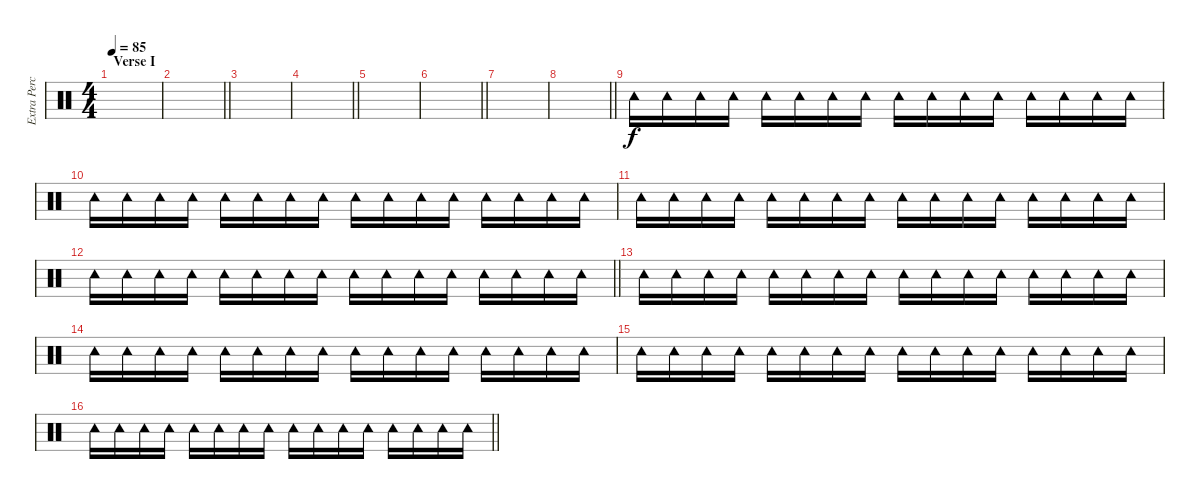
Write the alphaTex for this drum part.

\track ("Extra Percussion" "Extra Perc") {instrument percussion}
\staff {score}
\articulation defaults
\ts (4 4)
\section ("" "Verse I")
\tempo 85
\clef neutral
\ks c
|
\barLineRight lightlight
|
|
\barLineRight lightlight
|
|
\barLineRight lightlight
|
|
\barLineRight lightlight
|
"Tambourine (hit)".16 "Tambourine (hit)".16 "Tambourine (hit)".16 "Tambourine (hit)".16 "Tambourine (hit)".16 "Tambourine (hit)".16 "Tambourine (hit)".16 "Tambourine (hit)".16 "Tambourine (hit)".16 "Tambourine (hit)".16 "Tambourine (hit)".16 "Tambourine (hit)".16 "Tambourine (hit)".16 "Tambourine (hit)".16 "Tambourine (hit)".16 "Tambourine (hit)".16 |
"Tambourine (hit)".16 "Tambourine (hit)".16 "Tambourine (hit)".16 "Tambourine (hit)".16 "Tambourine (hit)".16 "Tambourine (hit)".16 "Tambourine (hit)".16 "Tambourine (hit)".16 "Tambourine (hit)".16 "Tambourine (hit)".16 "Tambourine (hit)".16 "Tambourine (hit)".16 "Tambourine (hit)".16 "Tambourine (hit)".16 "Tambourine (hit)".16 "Tambourine (hit)".16 |
"Tambourine (hit)".16 "Tambourine (hit)".16 "Tambourine (hit)".16 "Tambourine (hit)".16 "Tambourine (hit)".16 "Tambourine (hit)".16 "Tambourine (hit)".16 "Tambourine (hit)".16 "Tambourine (hit)".16 "Tambourine (hit)".16 "Tambourine (hit)".16 "Tambourine (hit)".16 "Tambourine (hit)".16 "Tambourine (hit)".16 "Tambourine (hit)".16 "Tambourine (hit)".16 |
\barLineRight lightlight "Tambourine (hit)".16 "Tambourine (hit)".16 "Tambourine (hit)".16 "Tambourine (hit)".16 "Tambourine (hit)".16 "Tambourine (hit)".16 "Tambourine (hit)".16 "Tambourine (hit)".16 "Tambourine (hit)".16 "Tambourine (hit)".16 "Tambourine (hit)".16 "Tambourine (hit)".16 "Tambourine (hit)".16 "Tambourine (hit)".16 "Tambourine (hit)".16 "Tambourine (hit)".16
|
"Tambourine (hit)".16 "Tambourine (hit)".16 "Tambourine (hit)".16 "Tambourine (hit)".16 "Tambourine (hit)".16 "Tambourine (hit)".16 "Tambourine (hit)".16 "Tambourine (hit)".16 "Tambourine (hit)".16 "Tambourine (hit)".16 "Tambourine (hit)".16 "Tambourine (hit)".16 "Tambourine (hit)".16 "Tambourine (hit)".16 "Tambourine (hit)".16 "Tambourine (hit)".16 |
"Tambourine (hit)".16 "Tambourine (hit)".16 "Tambourine (hit)".16 "Tambourine (hit)".16 "Tambourine (hit)".16 "Tambourine (hit)".16 "Tambourine (hit)".16 "Tambourine (hit)".16 "Tambourine (hit)".16 "Tambourine (hit)".16 "Tambourine (hit)".16 "Tambourine (hit)".16 "Tambourine (hit)".16 "Tambourine (hit)".16 "Tambourine (hit)".16 "Tambourine (hit)".16 |
"Tambourine (hit)".16 "Tambourine (hit)".16 "Tambourine (hit)".16 "Tambourine (hit)".16 "Tambourine (hit)".16 "Tambourine (hit)".16 "Tambourine (hit)".16 "Tambourine (hit)".16 "Tambourine (hit)".16 "Tambourine (hit)".16 "Tambourine (hit)".16 "Tambourine (hit)".16 "Tambourine (hit)".16 "Tambourine (hit)".16 "Tambourine (hit)".16 "Tambourine (hit)".16 |
\barLineRight lightlight "Tambourine (hit)".16 "Tambourine (hit)".16 "Tambourine (hit)".16 "Tambourine (hit)".16 "Tambourine (hit)".16 "Tambourine (hit)".16 "Tambourine (hit)".16 "Tambourine (hit)".16 "Tambourine (hit)".16 "Tambourine (hit)".16 "Tambourine (hit)".16 "Tambourine (hit)".16 "Tambourine (hit)".16 "Tambourine (hit)".16 "Tambourine (hit)".16 "Tambourine (hit)".16
